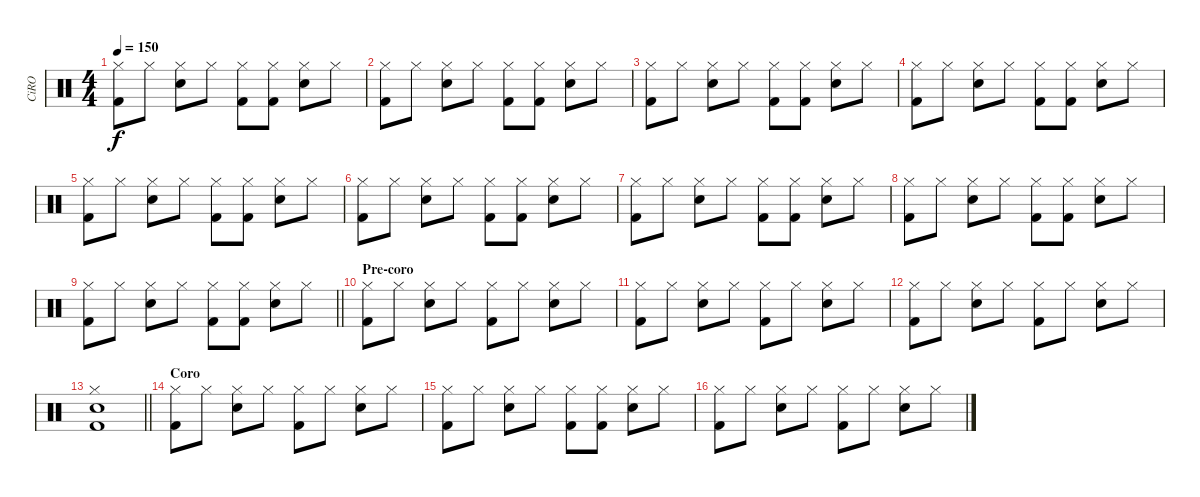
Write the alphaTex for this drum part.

\track ("CiRO" "CiRO") {instrument percussion}
\staff {score}
\articulation defaults
\ts (4 4)
\tempo 150
\clef neutral
\ks c
("Hi-Hat (closed)" "Kick (hit) 2").8{dy f} "Hi-Hat (closed)".8 ("Hi-Hat (closed)" "Electric Snare (hit)").8 "Hi-Hat (closed)".8 ("Hi-Hat (closed)" "Kick (hit) 2").8 ("Hi-Hat (closed)" "Kick (hit) 2").8 ("Hi-Hat (closed)" "Electric Snare (hit)").8 "Hi-Hat (closed)".8 |
("Hi-Hat (closed)" "Kick (hit) 2").8 "Hi-Hat (closed)".8 ("Hi-Hat (closed)" "Electric Snare (hit)").8 "Hi-Hat (closed)".8 ("Hi-Hat (closed)" "Kick (hit) 2").8 ("Hi-Hat (closed)" "Kick (hit) 2").8 ("Hi-Hat (closed)" "Electric Snare (hit)").8 "Hi-Hat (closed)".8 |
("Hi-Hat (closed)" "Kick (hit) 2").8 "Hi-Hat (closed)".8 ("Hi-Hat (closed)" "Electric Snare (hit)").8 "Hi-Hat (closed)".8 ("Hi-Hat (closed)" "Kick (hit) 2").8 ("Hi-Hat (closed)" "Kick (hit) 2").8 ("Hi-Hat (closed)" "Electric Snare (hit)").8 "Hi-Hat (closed)".8 |
("Hi-Hat (closed)" "Kick (hit) 2").8 "Hi-Hat (closed)".8 ("Hi-Hat (closed)" "Electric Snare (hit)").8 "Hi-Hat (closed)".8 ("Hi-Hat (closed)" "Kick (hit) 2").8 ("Hi-Hat (closed)" "Kick (hit) 2").8 ("Hi-Hat (closed)" "Electric Snare (hit)").8 "Hi-Hat (closed)".8 |
("Hi-Hat (closed)" "Kick (hit) 2").8 "Hi-Hat (closed)".8 ("Hi-Hat (closed)" "Electric Snare (hit)").8 "Hi-Hat (closed)".8 ("Hi-Hat (closed)" "Kick (hit) 2").8 ("Hi-Hat (closed)" "Kick (hit) 2").8 ("Hi-Hat (closed)" "Electric Snare (hit)").8 "Hi-Hat (closed)".8 |
("Hi-Hat (closed)" "Kick (hit) 2").8 "Hi-Hat (closed)".8 ("Hi-Hat (closed)" "Electric Snare (hit)").8 "Hi-Hat (closed)".8 ("Hi-Hat (closed)" "Kick (hit) 2").8 ("Hi-Hat (closed)" "Kick (hit) 2").8 ("Hi-Hat (closed)" "Electric Snare (hit)").8 "Hi-Hat (closed)".8 |
("Hi-Hat (closed)" "Kick (hit) 2").8 "Hi-Hat (closed)".8 ("Hi-Hat (closed)" "Electric Snare (hit)").8 "Hi-Hat (closed)".8 ("Hi-Hat (closed)" "Kick (hit) 2").8 ("Hi-Hat (closed)" "Kick (hit) 2").8 ("Hi-Hat (closed)" "Electric Snare (hit)").8 "Hi-Hat (closed)".8 |
("Hi-Hat (closed)" "Kick (hit) 2").8 "Hi-Hat (closed)".8 ("Hi-Hat (closed)" "Electric Snare (hit)").8 "Hi-Hat (closed)".8 ("Hi-Hat (closed)" "Kick (hit) 2").8 ("Hi-Hat (closed)" "Kick (hit) 2").8 ("Hi-Hat (closed)" "Electric Snare (hit)").8 "Hi-Hat (closed)".8 |
\barLineRight lightlight
("Hi-Hat (closed)" "Kick (hit) 2").8 "Hi-Hat (closed)".8 ("Hi-Hat (closed)" "Electric Snare (hit)").8 "Hi-Hat (closed)".8 ("Hi-Hat (closed)" "Kick (hit) 2").8 ("Hi-Hat (closed)" "Kick (hit) 2").8 ("Hi-Hat (closed)" "Electric Snare (hit)").8 "Hi-Hat (closed)".8 |
\section ("" "Pre-coro")
("Hi-Hat (closed)" "Kick (hit) 2").8 "Hi-Hat (closed)".8 ("Hi-Hat (closed)" "Electric Snare (hit)").8 "Hi-Hat (closed)".8 ("Hi-Hat (closed)" "Kick (hit) 2").8 "Hi-Hat (closed)".8 ("Hi-Hat (closed)" "Electric Snare (hit)").8 "Hi-Hat (closed)".8 |
("Hi-Hat (closed)" "Kick (hit) 2").8 "Hi-Hat (closed)".8 ("Hi-Hat (closed)" "Electric Snare (hit)").8 "Hi-Hat (closed)".8 ("Hi-Hat (closed)" "Kick (hit) 2").8 "Hi-Hat (closed)".8 ("Hi-Hat (closed)" "Electric Snare (hit)").8 "Hi-Hat (closed)".8 |
("Hi-Hat (closed)" "Kick (hit) 2").8 "Hi-Hat (closed)".8 ("Hi-Hat (closed)" "Electric Snare (hit)").8 "Hi-Hat (closed)".8 ("Hi-Hat (closed)" "Kick (hit) 2").8 "Hi-Hat (closed)".8 ("Hi-Hat (closed)" "Electric Snare (hit)").8 "Hi-Hat (closed)".8 |
\barLineRight lightlight
("Hi-Hat (closed)" "Electric Snare (hit)" "Kick (hit) 2").1 |
\section ("" "Coro")
("Hi-Hat (closed)" "Kick (hit) 2").8 "Hi-Hat (closed)".8 ("Hi-Hat (closed)" "Electric Snare (hit)").8 "Hi-Hat (closed)".8 ("Hi-Hat (closed)" "Kick (hit) 2").8 "Hi-Hat (closed)".8 ("Hi-Hat (closed)" "Electric Snare (hit)").8 "Hi-Hat (closed)".8 |
("Hi-Hat (closed)" "Kick (hit) 2").8 "Hi-Hat (closed)".8 ("Hi-Hat (closed)" "Electric Snare (hit)").8 "Hi-Hat (closed)".8 ("Hi-Hat (closed)" "Kick (hit) 2").8 ("Hi-Hat (closed)" "Kick (hit) 2").8 ("Hi-Hat (closed)" "Electric Snare (hit)").8 "Hi-Hat (closed)".8 |
("Hi-Hat (closed)" "Kick (hit) 2").8 "Hi-Hat (closed)".8 ("Hi-Hat (closed)" "Electric Snare (hit)").8 "Hi-Hat (closed)".8 ("Hi-Hat (closed)" "Kick (hit) 2").8 "Hi-Hat (closed)".8 ("Hi-Hat (closed)" "Electric Snare (hit)").8 "Hi-Hat (closed)".8
